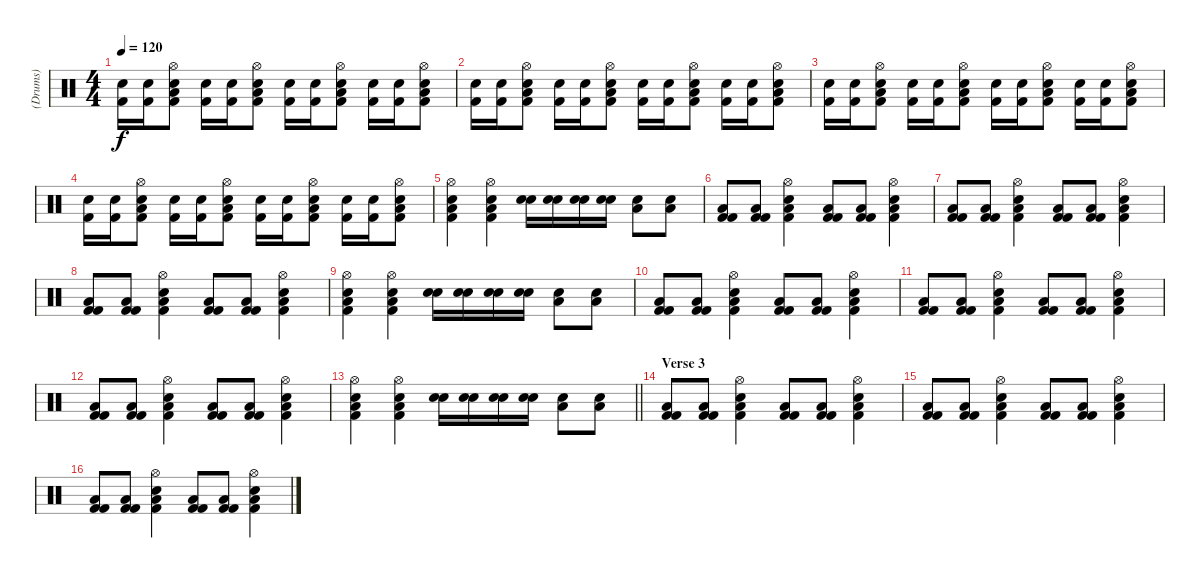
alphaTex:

\track ("(Drums)" "(Drums)") {instrument percussion}
\staff {score}
\articulation defaults
\ts (4 4)
\tempo 120
\clef neutral
\ks c
("Kick (hit) 2" "Electric Snare (hit)").16{dy f} ("Kick (hit) 2" "Electric Snare (hit)").16 ("Kick (hit) 2" "Electric Snare (hit)" "Low Floor Tom (hit)" "Hi-Hat (open)").8 ("Kick (hit) 2" "Electric Snare (hit)").16 ("Kick (hit) 2" "Electric Snare (hit)").16 ("Kick (hit) 2" "Electric Snare (hit)" "Low Floor Tom (hit)" "Hi-Hat (open)").8 ("Kick (hit) 2" "Electric Snare (hit)").16 ("Kick (hit) 2" "Electric Snare (hit)").16 ("Kick (hit) 2" "Electric Snare (hit)" "Low Floor Tom (hit)" "Hi-Hat (open)").8 ("Kick (hit) 2" "Electric Snare (hit)").16 ("Kick (hit) 2" "Electric Snare (hit)").16 ("Kick (hit) 2" "Electric Snare (hit)" "Low Floor Tom (hit)" "Hi-Hat (open)").8 |
("Kick (hit) 2" "Electric Snare (hit)").16 ("Kick (hit) 2" "Electric Snare (hit)").16 ("Kick (hit) 2" "Electric Snare (hit)" "Low Floor Tom (hit)" "Hi-Hat (open)").8 ("Kick (hit) 2" "Electric Snare (hit)").16 ("Kick (hit) 2" "Electric Snare (hit)").16 ("Kick (hit) 2" "Electric Snare (hit)" "Low Floor Tom (hit)" "Hi-Hat (open)").8 ("Kick (hit) 2" "Electric Snare (hit)").16 ("Kick (hit) 2" "Electric Snare (hit)").16 ("Kick (hit) 2" "Electric Snare (hit)" "Low Floor Tom (hit)" "Hi-Hat (open)").8 ("Kick (hit) 2" "Electric Snare (hit)").16 ("Kick (hit) 2" "Electric Snare (hit)").16 ("Kick (hit) 2" "Electric Snare (hit)" "Low Floor Tom (hit)" "Hi-Hat (open)").8 |
("Kick (hit) 2" "Electric Snare (hit)").16 ("Kick (hit) 2" "Electric Snare (hit)").16 ("Kick (hit) 2" "Electric Snare (hit)" "Low Floor Tom (hit)" "Hi-Hat (open)").8 ("Kick (hit) 2" "Electric Snare (hit)").16 ("Kick (hit) 2" "Electric Snare (hit)").16 ("Kick (hit) 2" "Electric Snare (hit)" "Low Floor Tom (hit)" "Hi-Hat (open)").8 ("Kick (hit) 2" "Electric Snare (hit)").16 ("Kick (hit) 2" "Electric Snare (hit)").16 ("Kick (hit) 2" "Electric Snare (hit)" "Low Floor Tom (hit)" "Hi-Hat (open)").8 ("Kick (hit) 2" "Electric Snare (hit)").16 ("Kick (hit) 2" "Electric Snare (hit)").16 ("Kick (hit) 2" "Electric Snare (hit)" "Low Floor Tom (hit)" "Hi-Hat (open)").8 |
("Kick (hit) 2" "Electric Snare (hit)").16 ("Kick (hit) 2" "Electric Snare (hit)").16 ("Kick (hit) 2" "Electric Snare (hit)" "Low Floor Tom (hit)" "Hi-Hat (open)").8 ("Kick (hit) 2" "Electric Snare (hit)").16 ("Kick (hit) 2" "Electric Snare (hit)").16 ("Kick (hit) 2" "Electric Snare (hit)" "Low Floor Tom (hit)" "Hi-Hat (open)").8 ("Kick (hit) 2" "Electric Snare (hit)").16 ("Kick (hit) 2" "Electric Snare (hit)").16 ("Kick (hit) 2" "Electric Snare (hit)" "Low Floor Tom (hit)" "Hi-Hat (open)").8 ("Kick (hit) 2" "Electric Snare (hit)").16 ("Kick (hit) 2" "Electric Snare (hit)").16 ("Kick (hit) 2" "Electric Snare (hit)" "Low Floor Tom (hit)" "Hi-Hat (open)").8 |
("Kick (hit) 2" "Electric Snare (hit)" "Low Floor Tom (hit)" "Hi-Hat (open)").4 ("Kick (hit) 2" "Electric Snare (hit)" "Low Floor Tom (hit)" "Hi-Hat (open)").4 ("Electric Snare (hit)" "Electric Snare (hit)").16 ("Electric Snare (hit)" "Electric Snare (hit)").16 ("Electric Snare (hit)" "Electric Snare (hit)").16 ("Electric Snare (hit)" "Electric Snare (hit)").16 ("Electric Snare (hit)" "Low Floor Tom (hit)").8 ("Electric Snare (hit)" "Low Floor Tom (hit)").8 |
("Kick (hit) 2" "Kick (hit) 2" "Low Floor Tom (hit)").8 ("Kick (hit) 2" "Kick (hit) 2" "Low Floor Tom (hit)").8 ("Kick (hit) 2" "Electric Snare (hit)" "Low Floor Tom (hit)" "Hi-Hat (open)").4 ("Kick (hit) 2" "Kick (hit) 2" "Low Floor Tom (hit)").8 ("Kick (hit) 2" "Kick (hit) 2" "Low Floor Tom (hit)").8 ("Kick (hit) 2" "Electric Snare (hit)" "Low Floor Tom (hit)" "Hi-Hat (open)").4 |
("Kick (hit) 2" "Kick (hit) 2" "Low Floor Tom (hit)").8 ("Kick (hit) 2" "Kick (hit) 2" "Low Floor Tom (hit)").8 ("Kick (hit) 2" "Electric Snare (hit)" "Low Floor Tom (hit)" "Hi-Hat (open)").4 ("Kick (hit) 2" "Kick (hit) 2" "Low Floor Tom (hit)").8 ("Kick (hit) 2" "Kick (hit) 2" "Low Floor Tom (hit)").8 ("Kick (hit) 2" "Electric Snare (hit)" "Low Floor Tom (hit)" "Hi-Hat (open)").4 |
("Kick (hit) 2" "Kick (hit) 2" "Low Floor Tom (hit)").8 ("Kick (hit) 2" "Kick (hit) 2" "Low Floor Tom (hit)").8 ("Kick (hit) 2" "Electric Snare (hit)" "Low Floor Tom (hit)" "Hi-Hat (open)").4 ("Kick (hit) 2" "Kick (hit) 2" "Low Floor Tom (hit)").8 ("Kick (hit) 2" "Kick (hit) 2" "Low Floor Tom (hit)").8 ("Kick (hit) 2" "Electric Snare (hit)" "Low Floor Tom (hit)" "Hi-Hat (open)").4 |
("Kick (hit) 2" "Electric Snare (hit)" "Low Floor Tom (hit)" "Hi-Hat (open)").4 ("Kick (hit) 2" "Electric Snare (hit)" "Low Floor Tom (hit)" "Hi-Hat (open)").4 ("Electric Snare (hit)" "Electric Snare (hit)").16 ("Electric Snare (hit)" "Electric Snare (hit)").16 ("Electric Snare (hit)" "Electric Snare (hit)").16 ("Electric Snare (hit)" "Electric Snare (hit)").16 ("Electric Snare (hit)" "Low Floor Tom (hit)").8 ("Electric Snare (hit)" "Low Floor Tom (hit)").8 |
("Kick (hit) 2" "Kick (hit) 2" "Low Floor Tom (hit)").8 ("Kick (hit) 2" "Kick (hit) 2" "Low Floor Tom (hit)").8 ("Kick (hit) 2" "Electric Snare (hit)" "Low Floor Tom (hit)" "Hi-Hat (open)").4 ("Kick (hit) 2" "Kick (hit) 2" "Low Floor Tom (hit)").8 ("Kick (hit) 2" "Kick (hit) 2" "Low Floor Tom (hit)").8 ("Kick (hit) 2" "Electric Snare (hit)" "Low Floor Tom (hit)" "Hi-Hat (open)").4 |
("Kick (hit) 2" "Kick (hit) 2" "Low Floor Tom (hit)").8 ("Kick (hit) 2" "Kick (hit) 2" "Low Floor Tom (hit)").8 ("Kick (hit) 2" "Electric Snare (hit)" "Low Floor Tom (hit)" "Hi-Hat (open)").4 ("Kick (hit) 2" "Kick (hit) 2" "Low Floor Tom (hit)").8 ("Kick (hit) 2" "Kick (hit) 2" "Low Floor Tom (hit)").8 ("Kick (hit) 2" "Electric Snare (hit)" "Low Floor Tom (hit)" "Hi-Hat (open)").4 |
("Kick (hit) 2" "Kick (hit) 2" "Low Floor Tom (hit)").8 ("Kick (hit) 2" "Kick (hit) 2" "Low Floor Tom (hit)").8 ("Kick (hit) 2" "Electric Snare (hit)" "Low Floor Tom (hit)" "Hi-Hat (open)").4 ("Kick (hit) 2" "Kick (hit) 2" "Low Floor Tom (hit)").8 ("Kick (hit) 2" "Kick (hit) 2" "Low Floor Tom (hit)").8 ("Kick (hit) 2" "Electric Snare (hit)" "Low Floor Tom (hit)" "Hi-Hat (open)").4 |
\barLineRight lightlight
("Kick (hit) 2" "Electric Snare (hit)" "Low Floor Tom (hit)" "Hi-Hat (open)").4 ("Kick (hit) 2" "Electric Snare (hit)" "Low Floor Tom (hit)" "Hi-Hat (open)").4 ("Electric Snare (hit)" "Electric Snare (hit)").16 ("Electric Snare (hit)" "Electric Snare (hit)").16 ("Electric Snare (hit)" "Electric Snare (hit)").16 ("Electric Snare (hit)" "Electric Snare (hit)").16 ("Electric Snare (hit)" "Low Floor Tom (hit)").8 ("Electric Snare (hit)" "Low Floor Tom (hit)").8 |
\section ("" "Verse 3")
("Kick (hit) 2" "Kick (hit) 2" "Low Floor Tom (hit)").8 ("Kick (hit) 2" "Kick (hit) 2" "Low Floor Tom (hit)").8 ("Kick (hit) 2" "Electric Snare (hit)" "Low Floor Tom (hit)" "Hi-Hat (open)").4 ("Kick (hit) 2" "Kick (hit) 2" "Low Floor Tom (hit)").8 ("Kick (hit) 2" "Kick (hit) 2" "Low Floor Tom (hit)").8 ("Kick (hit) 2" "Electric Snare (hit)" "Low Floor Tom (hit)" "Hi-Hat (open)").4 |
("Kick (hit) 2" "Kick (hit) 2" "Low Floor Tom (hit)").8 ("Kick (hit) 2" "Kick (hit) 2" "Low Floor Tom (hit)").8 ("Kick (hit) 2" "Electric Snare (hit)" "Low Floor Tom (hit)" "Hi-Hat (open)").4 ("Kick (hit) 2" "Kick (hit) 2" "Low Floor Tom (hit)").8 ("Kick (hit) 2" "Kick (hit) 2" "Low Floor Tom (hit)").8 ("Kick (hit) 2" "Electric Snare (hit)" "Low Floor Tom (hit)" "Hi-Hat (open)").4 |
("Kick (hit) 2" "Kick (hit) 2" "Low Floor Tom (hit)").8 ("Kick (hit) 2" "Kick (hit) 2" "Low Floor Tom (hit)").8 ("Kick (hit) 2" "Electric Snare (hit)" "Low Floor Tom (hit)" "Hi-Hat (open)").4 ("Kick (hit) 2" "Kick (hit) 2" "Low Floor Tom (hit)").8 ("Kick (hit) 2" "Kick (hit) 2" "Low Floor Tom (hit)").8 ("Kick (hit) 2" "Electric Snare (hit)" "Low Floor Tom (hit)" "Hi-Hat (open)").4
